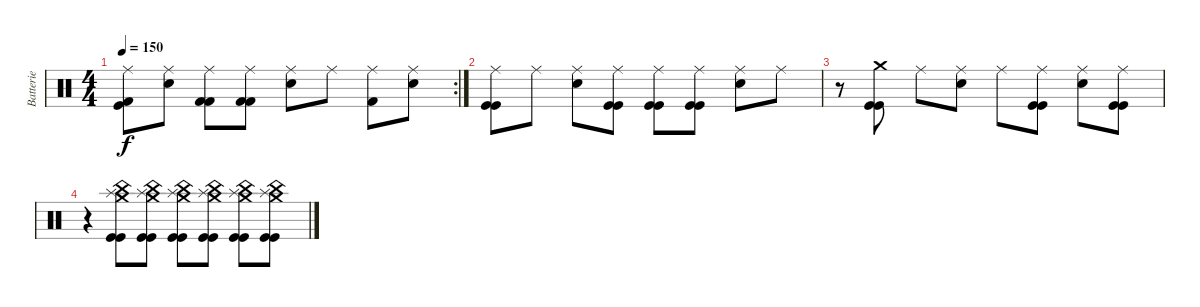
\track ("Batterie" "Batterie") {instrument percussion}
\staff {score}
\articulation defaults
\rc 2
\ts (4 4)
\tempo 150
\clef neutral
\ks c
("Ride (middle)" "Kick (hit) 2" "Kick (hit)").8{dy f} ("Ride (middle)" "Snare (hit) 2").8 ("Ride (middle)" "Kick (hit) 2" "Kick (hit) 2").8 ("Ride (middle)" "Kick (hit) 2" "Kick (hit) 2").8 ("Ride (middle)" "Snare (hit) 2").8 "Ride (middle)".8 ("Ride (middle)" "Kick (hit) 2").8 ("Ride (middle)" "Snare (hit) 2").8 |
("Ride (middle)" "Kick (hit)" "Kick (hit)").8 "Ride (middle)".8 ("Ride (middle)" "Snare (hit) 2").8 ("Ride (middle)" "Kick (hit)" "Kick (hit)").8 ("Ride (middle)" "Kick (hit)" "Kick (hit)").8 ("Ride (middle)" "Kick (hit)" "Kick (hit)").8 ("Ride (middle)" "Snare (hit) 2").8 "Ride (middle)".8 |
r.8 ("Crash medium (hit)" "Kick (hit)" "Kick (hit)").8 "Ride (middle)".8 ("Ride (middle)" "Snare (hit) 2").8 "Ride (middle)".8 ("Ride (middle)" "Kick (hit)" "Kick (hit)").8 ("Ride (middle)" "Snare (hit) 2").8 ("Ride (middle)" "Kick (hit)" "Kick (hit)").8 |
r.4 ("Crash medium (hit)" "Splash (hit)" "China (hit)" "Kick (hit)" "Kick (hit)").8 ("Crash medium (hit)" "Splash (hit)" "China (hit)" "Kick (hit)" "Kick (hit)").8 ("Crash medium (hit)" "Splash (hit)" "China (hit)" "Kick (hit)" "Kick (hit)").8 ("Crash medium (hit)" "Splash (hit)" "China (hit)" "Kick (hit)" "Kick (hit)").8 ("Crash medium (hit)" "Splash (hit)" "China (hit)" "Kick (hit)" "Kick (hit)").8 ("Crash medium (hit)" "Splash (hit)" "China (hit)" "Kick (hit)" "Kick (hit)").8
